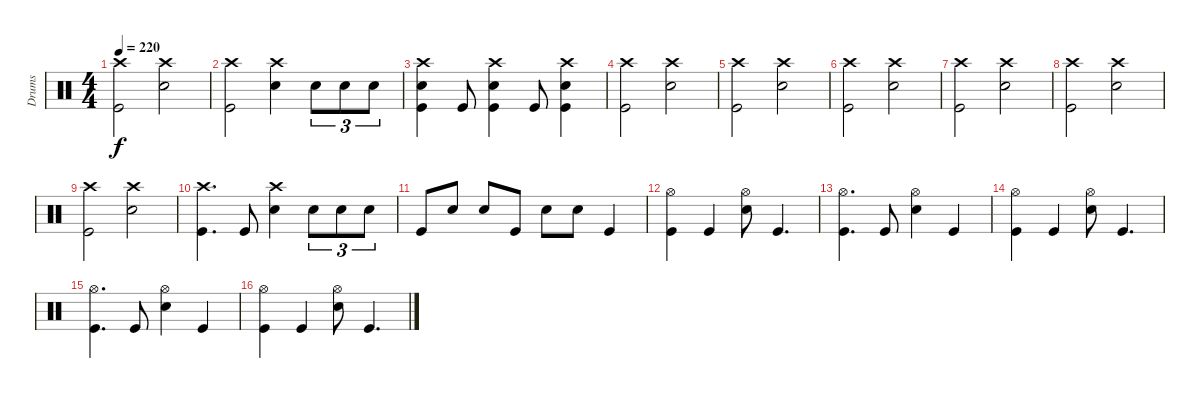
\track ("Drums" "Drums") {instrument percussion}
\staff {score}
\articulation defaults
\ts (4 4)
\tempo 220
\clef neutral
\ks c
("Crash high (hit)" "Kick (hit)").2{dy f} ("Crash high (hit)" "Snare (hit) 2").2 |
("Crash high (hit)" "Kick (hit)").2 ("Crash high (hit)" "Snare (hit) 2").4 "Snare (hit) 2".8{tu (3 2)} "Snare (hit) 2".8{tu (3 2)} "Snare (hit) 2".8{tu (3 2)} |
("Crash high (hit)" "Snare (hit) 2" "Kick (hit)").4 "Kick (hit)".8 ("Crash high (hit)" "Snare (hit) 2" "Kick (hit)").4 "Kick (hit)".8 ("Crash high (hit)" "Snare (hit) 2" "Kick (hit)").4 |
("Crash high (hit)" "Kick (hit)").2 ("Crash high (hit)" "Snare (hit) 2").2 |
("Crash high (hit)" "Kick (hit)").2 ("Crash high (hit)" "Snare (hit) 2").2 |
("Crash high (hit)" "Kick (hit)").2 ("Crash high (hit)" "Snare (hit) 2").2 |
("Crash high (hit)" "Kick (hit)").2 ("Crash high (hit)" "Snare (hit) 2").2 |
("Crash high (hit)" "Kick (hit)").2 ("Crash high (hit)" "Snare (hit) 2").2 |
("Crash high (hit)" "Kick (hit)").2 ("Crash high (hit)" "Snare (hit) 2").2 |
("Crash high (hit)" "Kick (hit)").4{d} "Kick (hit)".8 ("Crash high (hit)" "Snare (hit) 2").4 "Snare (hit) 2".8{tu (3 2)} "Snare (hit) 2".8{tu (3 2)} "Snare (hit) 2".8{tu (3 2)} |
"Kick (hit)".8 "Snare (hit) 2".8 "Snare (hit) 2".8 "Kick (hit)".8 "Snare (hit) 2".8 "Snare (hit) 2".8 "Kick (hit)".4 |
("Hi-Hat (open)" "Kick (hit)").4 "Kick (hit)".4 ("Hi-Hat (open)" "Snare (hit) 2").8 "Kick (hit)".4{d} |
("Hi-Hat (open)" "Kick (hit)").4{d} "Kick (hit)".8 ("Hi-Hat (open)" "Snare (hit) 2").4 "Kick (hit)".4 |
("Hi-Hat (open)" "Kick (hit)").4 "Kick (hit)".4 ("Hi-Hat (open)" "Snare (hit) 2").8 "Kick (hit)".4{d} |
("Hi-Hat (open)" "Kick (hit)").4{d} "Kick (hit)".8 ("Hi-Hat (open)" "Snare (hit) 2").4 "Kick (hit)".4 |
("Hi-Hat (open)" "Kick (hit)").4 "Kick (hit)".4 ("Hi-Hat (open)" "Snare (hit) 2").8 "Kick (hit)".4{d}
